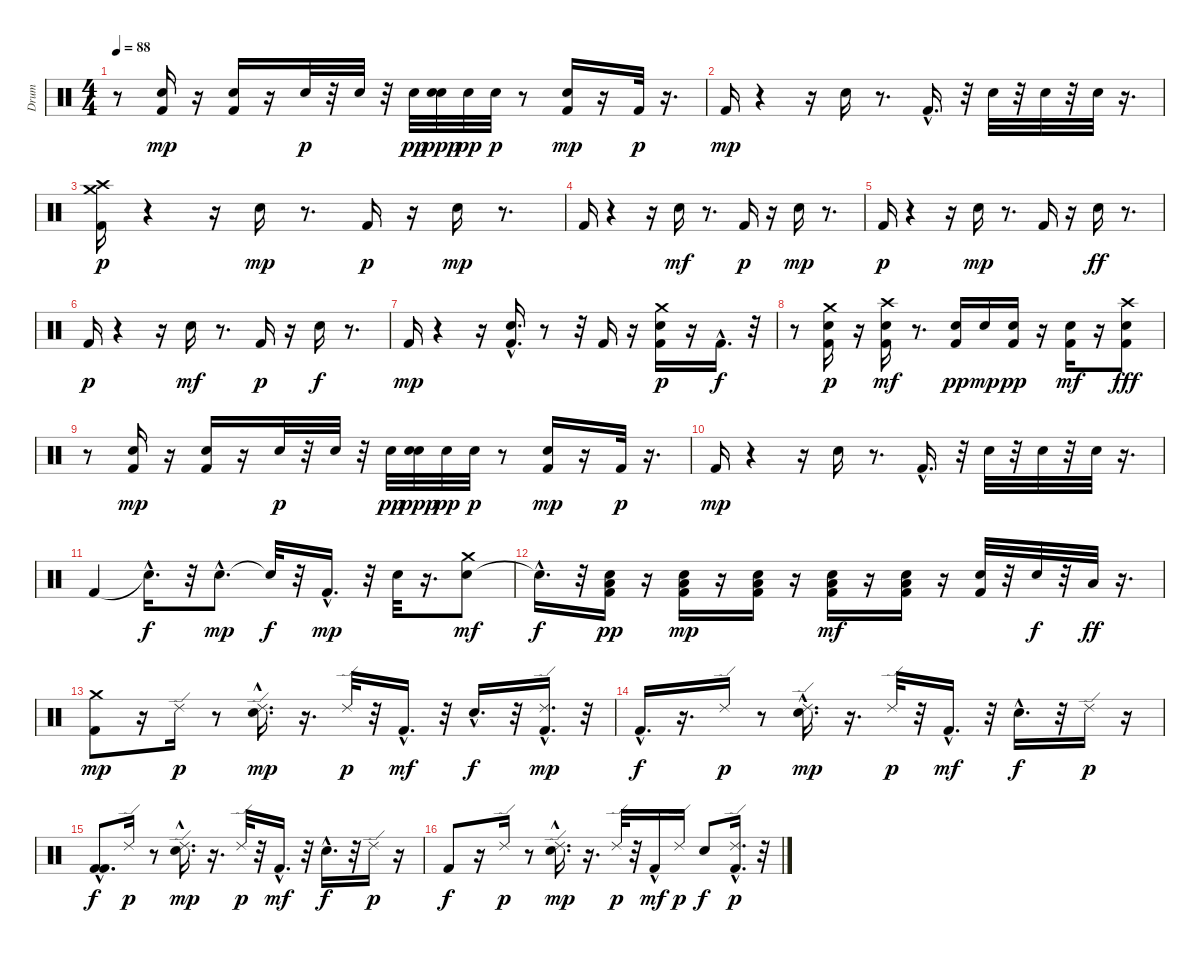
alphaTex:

\track ("Drum" "Drum") {instrument percussion}
\staff {score}
\articulation defaults
\ts (4 4)
\tempo 88
\clef neutral
\ks c
r.8{dy pp} ("Electric Snare (hit)" "Kick (hit) 2").16{dy mp} r.16 ("Kick (hit) 2" "Electric Snare (hit)").16 r.16 "Electric Snare (hit)".32{dy p} r.32 "Electric Snare (hit)".32 r.32 "Electric Snare (hit)".32{dy pp} ("Electric Snare (hit)" "Electric Snare (hit)").32{dy ppp} "Electric Snare (hit)".32{dy pp} "Electric Snare (hit)".32{dy p} r.8 ("Kick (hit) 2" "Electric Snare (hit)").16{dy mp} r.16 "Kick (hit) 2".32{dy p} r.16{d} |
"Kick (hit) 2".16{dy mp} r.4 r.16 "Electric Snare (hit)".16 r.8{d} "Kick (hit) 2"{hac}.16{d} r.32 "Electric Snare (hit)".32 r.32 "Electric Snare (hit)".32 r.32 "Electric Snare (hit)".32 r.16{d} |
("Kick (hit) 2" "Crash high (hit)" "Crash medium (hit)").16{dy p} r.4 r.16 "Electric Snare (hit)".16{dy mp} r.8{d} "Kick (hit) 2".16{dy p} r.16 "Electric Snare (hit)".16{dy mp} r.8{d} |
"Kick (hit) 2".16 r.4 r.16 "Electric Snare (hit)".16{dy mf} r.8{d} "Kick (hit) 2".16{dy p} r.16 "Electric Snare (hit)".16{dy mp} r.8{d} |
"Kick (hit) 2".16{dy p} r.4 r.16 "Electric Snare (hit)".16{dy mp} r.8{d} "Kick (hit) 2".16 r.16 "Electric Snare (hit)".16{dy ff} r.8{d} |
"Kick (hit) 2".16{dy p} r.4 r.16 "Electric Snare (hit)".16{dy mf} r.8{d} "Kick (hit) 2".16{dy p} r.16 "Electric Snare (hit)".16{dy f} r.8{d} |
"Kick (hit) 2".16{dy mp} r.4 r.16 ("Electric Snare (hit)"{hac} "Kick (hit) 2").16{d} r.8 r.32 "Kick (hit) 2".16 r.16 ("Electric Snare (hit)" "Crash medium (hit)" "Kick (hit) 2").16{dy p} r.16 "Kick (hit) 2"{hac}.16{d dy f} r.32 |
r.8 ("Kick (hit) 2" "Electric Snare (hit)" "Crash medium (hit)").16{dy p} r.16 ("Electric Snare (hit)" "Kick (hit) 2" "Crash high (hit)").16{dy mf} r.8{d} ("Kick (hit) 2" "Electric Snare (hit)").16{dy pp} "Electric Snare (hit)".16{dy mp} ("Electric Snare (hit)" "Kick (hit) 2").16{dy pp} r.16 ("Electric Snare (hit)" "Kick (hit) 2").16{dy mf} r.16 ("Crash high (hit)" "Electric Snare (hit)" "Kick (hit) 2").8{dy fff} |
r.8 ("Kick (hit) 2" "Electric Snare (hit)").16{dy mp} r.16 ("Kick (hit) 2" "Electric Snare (hit)").16 r.16 "Electric Snare (hit)".32{dy p} r.32 "Electric Snare (hit)".32 r.32 "Electric Snare (hit)".32{dy pp} ("Electric Snare (hit)" "Electric Snare (hit)").32{dy ppp} "Electric Snare (hit)".32{dy pp} "Electric Snare (hit)".32{dy p} r.8 ("Kick (hit) 2" "Electric Snare (hit)").16{dy mp} r.16 "Kick (hit) 2".32{dy p} r.16{d} |
"Kick (hit) 2".16{dy mp} r.4 r.16 "Electric Snare (hit)".16 r.8{d} "Kick (hit) 2"{hac}.16{d} r.32 "Electric Snare (hit)".32 r.32 "Electric Snare (hit)".32 r.32 "Electric Snare (hit)".32 r.16{d} |
"Kick (hit) 2".4 "Snare (hit)"{hac t}.16{d dy f} r.32 "Electric Snare (hit)"{hac}.8{d dy mp} "Snare (hit)"{t}.32{dy f} r.32 "Kick (hit) 2"{hac}.16{d dy mp} r.32 "Electric Snare (hit)".32 r.16{d} ("Electric Snare (hit)" "Crash medium (hit)").8{dy mf} |
"Snare (hit)"{hac t}.16{d dy f} r.32 ("Electric Snare (hit)" "Kick (hit) 2" "Low Tom (hit)").16{dy pp} r.16 ("Electric Snare (hit)" "Low Tom (hit)" "Kick (hit) 2").16{dy mp} r.16 ("Electric Snare (hit)" "Low Tom (hit)" "Kick (hit) 2").16 r.16 ("Low Tom (hit)" "Kick (hit) 2" "Electric Snare (hit)").16{dy mf} r.16 ("Low Tom (hit)" "Electric Snare (hit)" "Kick (hit) 2").16 r.16 ("Kick (hit) 2" "Electric Snare (hit)").32 r.32 "Electric Snare (hit)".32{dy f} r.32 "Low Tom (hit)".32{dy ff} r.16{d} |
("Crash medium (hit)" "Kick (hit) 2").8{dy mp} r.16 "Ride (edge) 2".16{dy p} r.8 ("Ride (edge) 2" "Electric Snare (hit)"{hac}).16{d dy mp} r.16{d} "Ride (edge) 2".32{dy p} r.32 "Kick (hit) 2"{hac}.16{d dy mf} r.32 "Electric Snare (hit)"{hac}.16{d dy f} r.32 ("Ride (edge) 2" "Kick (hit) 2"{hac}).16{d dy mp} r.32 |
"Kick (hit) 2"{hac}.16{d dy f} r.16{d} "Ride (edge) 2".16{dy p} r.8 ("Electric Snare (hit)"{hac} "Ride (edge) 2").16{d dy mp} r.16{d} "Ride (edge) 2".32{dy p} r.32 "Kick (hit) 2"{hac}.16{d dy mf} r.32 "Electric Snare (hit)"{hac}.16{d dy f} r.32 "Ride (edge) 2".16{dy p} r.16 |
("Kick (hit) 2"{hac} "Kick (hit) 2").8{d dy f} "Ride (edge) 2".16{dy p} r.8 ("Ride (edge) 2" "Electric Snare (hit)"{hac}).16{d dy mp} r.16{d} "Ride (edge) 2".32{dy p} r.32 "Kick (hit) 2"{hac}.16{d dy mf} r.32 "Electric Snare (hit)"{hac}.16{d dy f} r.32 "Ride (edge) 2".16{dy p} r.16 |
"Kick (hit) 2".8{dy f} r.16 "Ride (edge) 2".16{dy p} r.8 ("Ride (edge) 2" "Electric Snare (hit)"{hac}).16{d dy mp} r.16{d} "Ride (edge) 2".32{dy p} r.32 "Kick (hit) 2"{hac}.16{dy mf} "Ride (edge) 2".16{dy p} "Electric Snare (hit)".8{dy f} ("Kick (hit) 2"{hac} "Ride (edge) 2").16{d dy p} r.32
